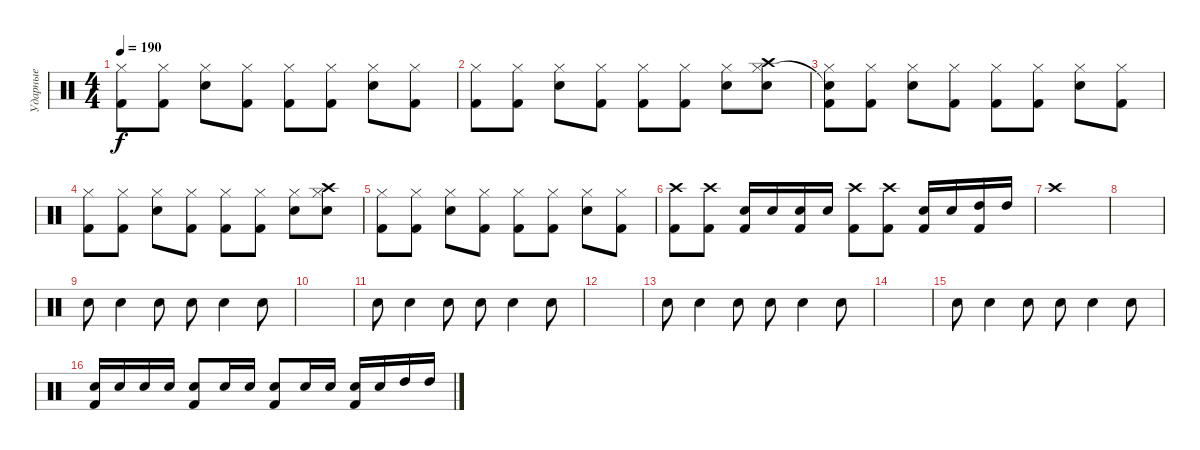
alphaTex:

\track ("Ударные" "Ударные") {instrument percussion}
\staff {score}
\articulation defaults
\ts (4 4)
\tempo 190
\clef neutral
\ks c
("Hi-Hat (closed)" "Kick (hit) 2").8{dy f} ("Hi-Hat (closed)" "Kick (hit) 2").8 ("Hi-Hat (closed)" "Electric Snare (hit)").8 ("Hi-Hat (closed)" "Kick (hit) 2").8 ("Hi-Hat (closed)" "Kick (hit) 2").8 ("Hi-Hat (closed)" "Kick (hit) 2").8 ("Hi-Hat (closed)" "Electric Snare (hit)").8 ("Hi-Hat (closed)" "Kick (hit) 2").8 |
("Hi-Hat (closed)" "Kick (hit) 2").8 ("Hi-Hat (closed)" "Kick (hit) 2").8 ("Hi-Hat (closed)" "Electric Snare (hit)").8 ("Hi-Hat (closed)" "Kick (hit) 2").8 ("Hi-Hat (closed)" "Kick (hit) 2").8 ("Hi-Hat (closed)" "Kick (hit) 2").8 ("Hi-Hat (closed)" "Electric Snare (hit)").8 ("Hi-Hat (closed)" "Crash high (hit)" "Electric Snare (hit)").8 |
("Snare (hit)"{t} "Hi-Hat (closed)" "Kick (hit) 2").8 ("Hi-Hat (closed)" "Kick (hit) 2").8 ("Hi-Hat (closed)" "Electric Snare (hit)").8 ("Hi-Hat (closed)" "Kick (hit) 2").8 ("Hi-Hat (closed)" "Kick (hit) 2").8 ("Hi-Hat (closed)" "Kick (hit) 2").8 ("Hi-Hat (closed)" "Electric Snare (hit)").8 ("Hi-Hat (closed)" "Kick (hit) 2").8 |
("Hi-Hat (closed)" "Kick (hit) 2").8 ("Hi-Hat (closed)" "Kick (hit) 2").8 ("Hi-Hat (closed)" "Electric Snare (hit)").8 ("Hi-Hat (closed)" "Kick (hit) 2").8 ("Hi-Hat (closed)" "Kick (hit) 2").8 ("Hi-Hat (closed)" "Kick (hit) 2").8 ("Hi-Hat (closed)" "Electric Snare (hit)").8 ("Hi-Hat (closed)" "Crash high (hit)" "Electric Snare (hit)").8 |
("Hi-Hat (closed)" "Kick (hit) 2").8 ("Hi-Hat (closed)" "Kick (hit) 2").8 ("Hi-Hat (closed)" "Electric Snare (hit)").8 ("Hi-Hat (closed)" "Kick (hit) 2").8 ("Hi-Hat (closed)" "Kick (hit) 2").8 ("Hi-Hat (closed)" "Kick (hit) 2").8 ("Hi-Hat (closed)" "Electric Snare (hit)").8 ("Hi-Hat (closed)" "Kick (hit) 2").8 |
("Crash high (hit)" "Kick (hit) 2").8 ("Crash high (hit)" "Kick (hit) 2").8 ("Electric Snare (hit)" "Kick (hit) 2").16 "Electric Snare (hit)".16 ("Electric Snare (hit)" "Kick (hit) 2").16 "Electric Snare (hit)".16 ("Crash high (hit)" "Kick (hit) 2").8 ("Crash high (hit)" "Kick (hit) 2").8 ("Electric Snare (hit)" "Kick (hit) 2").16 "Electric Snare (hit)".16 ("High Tom (hit)" "Kick (hit) 2").16 "High Tom (hit)".16 |
"Crash high (hit)".1 |
|
"Electric Snare (hit)".8 "Electric Snare (hit)".4 "Electric Snare (hit)".8 "Electric Snare (hit)".8 "Electric Snare (hit)".4 "Electric Snare (hit)".8 |
|
"Electric Snare (hit)".8 "Electric Snare (hit)".4 "Electric Snare (hit)".8 "Electric Snare (hit)".8 "Electric Snare (hit)".4 "Electric Snare (hit)".8 |
|
"Electric Snare (hit)".8 "Electric Snare (hit)".4 "Electric Snare (hit)".8 "Electric Snare (hit)".8 "Electric Snare (hit)".4 "Electric Snare (hit)".8 |
|
"Electric Snare (hit)".8 "Electric Snare (hit)".4 "Electric Snare (hit)".8 "Electric Snare (hit)".8 "Electric Snare (hit)".4 "Electric Snare (hit)".8 |
("Electric Snare (hit)" "Kick (hit) 2").16 "Electric Snare (hit)".16 "Electric Snare (hit)".16 "Electric Snare (hit)".16 ("Electric Snare (hit)" "Kick (hit) 2").8 "Electric Snare (hit)".16 "Electric Snare (hit)".16 ("Electric Snare (hit)" "Kick (hit) 2").8 "Electric Snare (hit)".16 "Electric Snare (hit)".16 ("Electric Snare (hit)" "Kick (hit) 2").16 "Electric Snare (hit)".16 "High Tom (hit)".16 "High Tom (hit)".16
